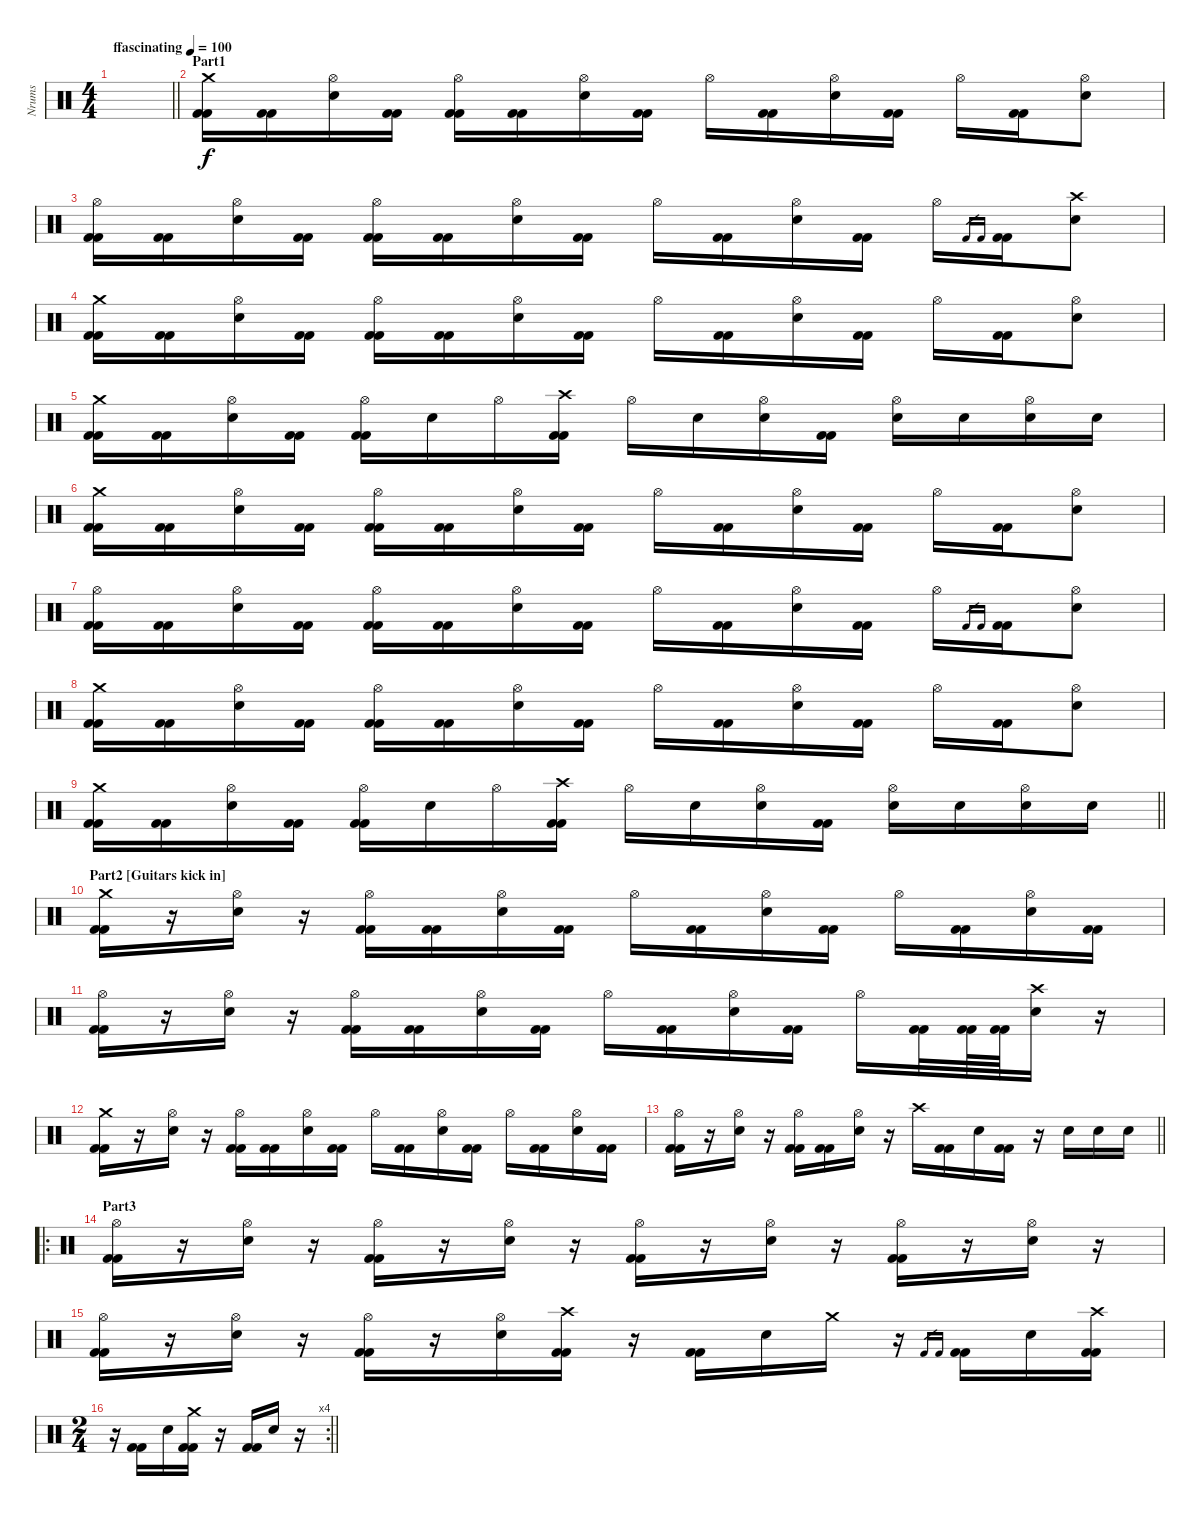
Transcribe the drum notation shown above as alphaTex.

\track ("Nrums" "Nrums") {instrument percussion}
\staff {score}
\articulation defaults
\ts (4 4)
\tempo (100 "ffascinating")
\clef neutral
\barLineRight lightlight
\ks c
|
\section ("" "Part1")
("Crash medium (hit)" "Kick (hit) 2" "Kick (hit) 2").16 ("Kick (hit) 2" "Kick (hit) 2").16 ("Hi-Hat (open)" "Electric Snare (hit)").16 ("Kick (hit) 2" "Kick (hit) 2").16 ("Hi-Hat (open)" "Kick (hit) 2" "Kick (hit) 2").16 ("Kick (hit) 2" "Kick (hit) 2").16 ("Hi-Hat (open)" "Electric Snare (hit)").16 ("Kick (hit) 2" "Kick (hit) 2").16 "Hi-Hat (open)".16 ("Kick (hit) 2" "Kick (hit) 2").16 ("Hi-Hat (open)" "Electric Snare (hit)").16 ("Kick (hit) 2" "Kick (hit) 2").16 "Hi-Hat (open)".16 ("Kick (hit) 2" "Kick (hit) 2").16 ("Hi-Hat (open)" "Electric Snare (hit)").8 |
("Hi-Hat (open)" "Kick (hit) 2" "Kick (hit) 2").16 ("Kick (hit) 2" "Kick (hit) 2").16 ("Hi-Hat (open)" "Electric Snare (hit)").16 ("Kick (hit) 2" "Kick (hit) 2").16 ("Hi-Hat (open)" "Kick (hit) 2" "Kick (hit) 2").16 ("Kick (hit) 2" "Kick (hit) 2").16 ("Hi-Hat (open)" "Electric Snare (hit)").16 ("Kick (hit) 2" "Kick (hit) 2").16 "Hi-Hat (open)".16 ("Kick (hit) 2" "Kick (hit) 2").16 ("Hi-Hat (open)" "Electric Snare (hit)").16 ("Kick (hit) 2" "Kick (hit) 2").16 "Hi-Hat (open)".16 "Kick (hit) 2".16{gr} "Kick (hit) 2".16{gr} ("Kick (hit) 2" "Kick (hit) 2").16 ("Crash high (hit)" "Electric Snare (hit)").8 |
("Crash medium (hit)" "Kick (hit) 2" "Kick (hit) 2").16 ("Kick (hit) 2" "Kick (hit) 2").16 ("Hi-Hat (open)" "Electric Snare (hit)").16 ("Kick (hit) 2" "Kick (hit) 2").16 ("Hi-Hat (open)" "Kick (hit) 2" "Kick (hit) 2").16 ("Kick (hit) 2" "Kick (hit) 2").16 ("Hi-Hat (open)" "Electric Snare (hit)").16 ("Kick (hit) 2" "Kick (hit) 2").16 "Hi-Hat (open)".16 ("Kick (hit) 2" "Kick (hit) 2").16 ("Hi-Hat (open)" "Electric Snare (hit)").16 ("Kick (hit) 2" "Kick (hit) 2").16 "Hi-Hat (open)".16 ("Kick (hit) 2" "Kick (hit) 2").16 ("Hi-Hat (open)" "Electric Snare (hit)").8 |
("Crash medium (hit)" "Kick (hit) 2" "Kick (hit) 2").16 ("Kick (hit) 2" "Kick (hit) 2").16 ("Hi-Hat (open)" "Electric Snare (hit)").16 ("Kick (hit) 2" "Kick (hit) 2").16 ("Hi-Hat (open)" "Kick (hit) 2" "Kick (hit) 2").16 "Electric Snare (hit)".16 "Hi-Hat (open)".16 ("Crash high (hit)" "Kick (hit) 2" "Kick (hit) 2").16 "Hi-Hat (open)".16 "Electric Snare (hit)".16 ("Hi-Hat (open)" "Electric Snare (hit)").16 ("Kick (hit) 2" "Kick (hit) 2").16 ("Hi-Hat (open)" "Electric Snare (hit)").16 "Electric Snare (hit)".16 ("Hi-Hat (open)" "Electric Snare (hit)").16 "Electric Snare (hit)".16 |
("Crash medium (hit)" "Kick (hit) 2" "Kick (hit) 2").16 ("Kick (hit) 2" "Kick (hit) 2").16 ("Hi-Hat (open)" "Electric Snare (hit)").16 ("Kick (hit) 2" "Kick (hit) 2").16 ("Hi-Hat (open)" "Kick (hit) 2" "Kick (hit) 2").16 ("Kick (hit) 2" "Kick (hit) 2").16 ("Hi-Hat (open)" "Electric Snare (hit)").16 ("Kick (hit) 2" "Kick (hit) 2").16 "Hi-Hat (open)".16 ("Kick (hit) 2" "Kick (hit) 2").16 ("Hi-Hat (open)" "Electric Snare (hit)").16 ("Kick (hit) 2" "Kick (hit) 2").16 "Hi-Hat (open)".16 ("Kick (hit) 2" "Kick (hit) 2").16 ("Hi-Hat (open)" "Electric Snare (hit)").8 |
("Hi-Hat (open)" "Kick (hit) 2" "Kick (hit) 2").16 ("Kick (hit) 2" "Kick (hit) 2").16 ("Hi-Hat (open)" "Electric Snare (hit)").16 ("Kick (hit) 2" "Kick (hit) 2").16 ("Hi-Hat (open)" "Kick (hit) 2" "Kick (hit) 2").16 ("Kick (hit) 2" "Kick (hit) 2").16 ("Hi-Hat (open)" "Electric Snare (hit)").16 ("Kick (hit) 2" "Kick (hit) 2").16 "Hi-Hat (open)".16 ("Kick (hit) 2" "Kick (hit) 2").16 ("Hi-Hat (open)" "Electric Snare (hit)").16 ("Kick (hit) 2" "Kick (hit) 2").16 "Hi-Hat (open)".16 "Kick (hit) 2".16{gr} "Kick (hit) 2".16{gr} ("Kick (hit) 2" "Kick (hit) 2").16 ("Hi-Hat (open)" "Electric Snare (hit)").8 |
("Crash medium (hit)" "Kick (hit) 2" "Kick (hit) 2").16 ("Kick (hit) 2" "Kick (hit) 2").16 ("Hi-Hat (open)" "Electric Snare (hit)").16 ("Kick (hit) 2" "Kick (hit) 2").16 ("Hi-Hat (open)" "Kick (hit) 2" "Kick (hit) 2").16 ("Kick (hit) 2" "Kick (hit) 2").16 ("Hi-Hat (open)" "Electric Snare (hit)").16 ("Kick (hit) 2" "Kick (hit) 2").16 "Hi-Hat (open)".16 ("Kick (hit) 2" "Kick (hit) 2").16 ("Hi-Hat (open)" "Electric Snare (hit)").16 ("Kick (hit) 2" "Kick (hit) 2").16 "Hi-Hat (open)".16 ("Kick (hit) 2" "Kick (hit) 2").16 ("Hi-Hat (open)" "Electric Snare (hit)").8 |
\barLineRight lightlight
("Crash medium (hit)" "Kick (hit) 2" "Kick (hit) 2").16 ("Kick (hit) 2" "Kick (hit) 2").16 ("Hi-Hat (open)" "Electric Snare (hit)").16 ("Kick (hit) 2" "Kick (hit) 2").16 ("Hi-Hat (open)" "Kick (hit) 2" "Kick (hit) 2").16 "Electric Snare (hit)".16 "Hi-Hat (open)".16 ("Crash high (hit)" "Kick (hit) 2" "Kick (hit) 2").16 "Hi-Hat (open)".16 "Electric Snare (hit)".16 ("Hi-Hat (open)" "Electric Snare (hit)").16 ("Kick (hit) 2" "Kick (hit) 2").16 ("Hi-Hat (open)" "Electric Snare (hit)").16 "Electric Snare (hit)".16 ("Hi-Hat (open)" "Electric Snare (hit)").16 "Electric Snare (hit)".16 |
\section ("" "Part2 [Guitars kick in]")
("Crash medium (hit)" "Kick (hit) 2" "Kick (hit) 2").16 r.16 ("Hi-Hat (open)" "Electric Snare (hit)").16 r.16 ("Hi-Hat (open)" "Kick (hit) 2" "Kick (hit) 2").16 ("Kick (hit) 2" "Kick (hit) 2").16 ("Hi-Hat (open)" "Electric Snare (hit)").16 ("Kick (hit) 2" "Kick (hit) 2").16 "Hi-Hat (open)".16 ("Kick (hit) 2" "Kick (hit) 2").16 ("Hi-Hat (open)" "Electric Snare (hit)").16 ("Kick (hit) 2" "Kick (hit) 2").16 "Hi-Hat (open)".16 ("Kick (hit) 2" "Kick (hit) 2").16 ("Hi-Hat (open)" "Electric Snare (hit)").16 ("Kick (hit) 2" "Kick (hit) 2").16 |
("Hi-Hat (open)" "Kick (hit) 2" "Kick (hit) 2").16 r.16 ("Hi-Hat (open)" "Electric Snare (hit)").16 r.16 ("Hi-Hat (open)" "Kick (hit) 2" "Kick (hit) 2").16 ("Kick (hit) 2" "Kick (hit) 2").16 ("Hi-Hat (open)" "Electric Snare (hit)").16 ("Kick (hit) 2" "Kick (hit) 2").16 "Hi-Hat (open)".16 ("Kick (hit) 2" "Kick (hit) 2").16 ("Hi-Hat (open)" "Electric Snare (hit)").16 ("Kick (hit) 2" "Kick (hit) 2").16 "Hi-Hat (open)".16 ("Kick (hit) 2" "Kick (hit) 2").32 ("Kick (hit) 2" "Kick (hit) 2").64 ("Kick (hit) 2" "Kick (hit) 2").64 ("Crash high (hit)" "Electric Snare (hit)").16 r.16 |
("Crash medium (hit)" "Kick (hit) 2" "Kick (hit) 2").16 r.16 ("Hi-Hat (open)" "Electric Snare (hit)").16 r.16 ("Hi-Hat (open)" "Kick (hit) 2" "Kick (hit) 2").16 ("Kick (hit) 2" "Kick (hit) 2").16 ("Hi-Hat (open)" "Electric Snare (hit)").16 ("Kick (hit) 2" "Kick (hit) 2").16 "Hi-Hat (open)".16 ("Kick (hit) 2" "Kick (hit) 2").16 ("Hi-Hat (open)" "Electric Snare (hit)").16 ("Kick (hit) 2" "Kick (hit) 2").16 "Hi-Hat (open)".16 ("Kick (hit) 2" "Kick (hit) 2").16 ("Hi-Hat (open)" "Electric Snare (hit)").16 ("Kick (hit) 2" "Kick (hit) 2").16 |
\barLineRight lightlight
("Hi-Hat (open)" "Kick (hit) 2" "Kick (hit) 2").16 r.16 ("Hi-Hat (open)" "Electric Snare (hit)").16 r.16 ("Hi-Hat (open)" "Kick (hit) 2" "Kick (hit) 2").16 ("Kick (hit) 2" "Kick (hit) 2").16 ("Hi-Hat (open)" "Electric Snare (hit)").16 r.16 "Crash high (hit)".16 ("Kick (hit) 2" "Kick (hit) 2").16 "Electric Snare (hit)".16 ("Kick (hit) 2" "Kick (hit) 2").16 r.16 "Electric Snare (hit)".16 "Electric Snare (hit)".16 "Electric Snare (hit)".16 |
\ro
\section ("" "Part3")
("Hi-Hat (open)" "Kick (hit) 2" "Kick (hit) 2").16 r.16 ("Hi-Hat (open)" "Electric Snare (hit)").16 r.16 ("Hi-Hat (open)" "Kick (hit) 2" "Kick (hit) 2").16 r.16 ("Hi-Hat (open)" "Electric Snare (hit)").16 r.16 ("Hi-Hat (open)" "Kick (hit) 2" "Kick (hit) 2").16 r.16 ("Hi-Hat (open)" "Electric Snare (hit)").16 r.16 ("Hi-Hat (open)" "Kick (hit) 2" "Kick (hit) 2").16 r.16 ("Hi-Hat (open)" "Electric Snare (hit)").16 r.16 |
("Hi-Hat (open)" "Kick (hit) 2" "Kick (hit) 2").16 r.16 ("Hi-Hat (open)" "Electric Snare (hit)").16 r.16 ("Hi-Hat (open)" "Kick (hit) 2" "Kick (hit) 2").16 r.16 ("Hi-Hat (open)" "Electric Snare (hit)").16 ("Crash high (hit)" "Kick (hit) 2" "Kick (hit) 2").16 r.16 ("Kick (hit) 2" "Kick (hit) 2").16 "Electric Snare (hit)".16 "Crash medium (hit)".16 r.16 "Kick (hit) 2".16{gr} "Kick (hit) 2".16{gr} ("Kick (hit) 2" "Kick (hit) 2").16 "Electric Snare (hit)".16 ("Crash high (hit)" "Kick (hit) 2" "Kick (hit) 2").16 |
\rc 4
\ts (2 4)
\barLineRight lightlight
r.16 ("Kick (hit) 2" "Kick (hit) 2").16 "Electric Snare (hit)".16 ("Crash medium (hit)" "Kick (hit) 2" "Kick (hit) 2").16 r.16 ("Kick (hit) 2" "Kick (hit) 2").16 "Electric Snare (hit)".16 r.16
